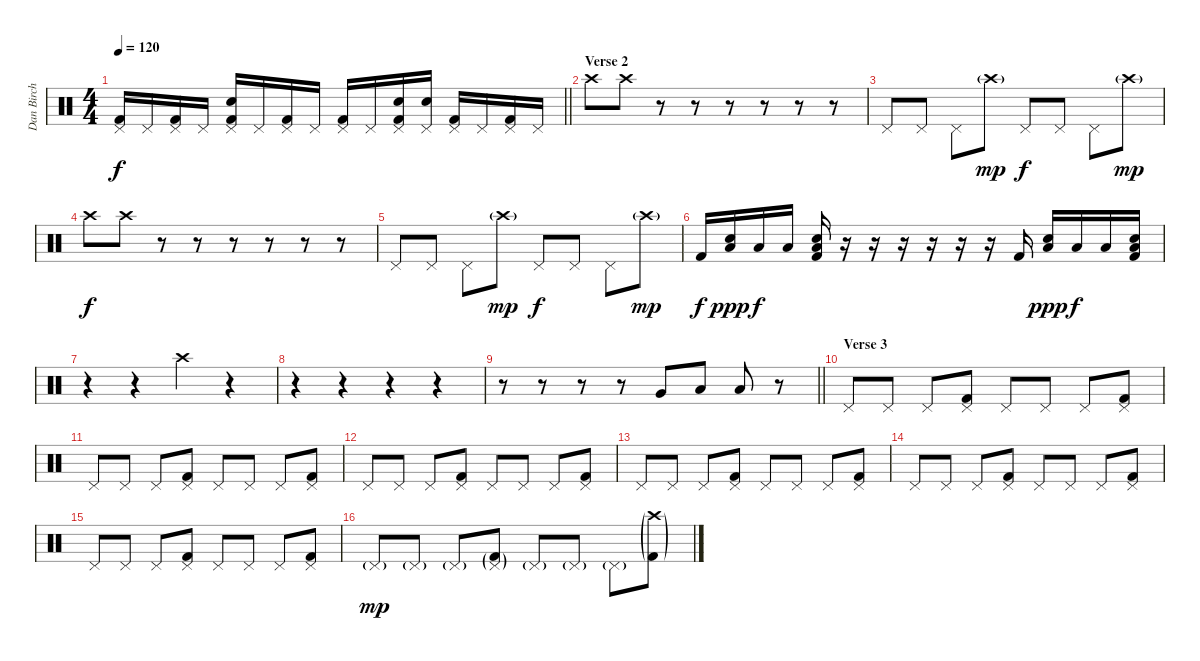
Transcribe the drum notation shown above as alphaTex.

\track ("Dan Birch" "Dan Birch") {instrument percussion}
\staff {score}
\articulation defaults
\ts (4 4)
\tempo 120
\clef neutral
\barLineRight lightlight
\ks c
("Pedal Hi-Hat (hit)" "Kick (hit) 2").16{dy f} "Pedal Hi-Hat (hit)".16 ("Pedal Hi-Hat (hit)" "Kick (hit) 2").16 "Pedal Hi-Hat (hit)".16 ("Pedal Hi-Hat (hit)" "Snare (hit) 2" "Kick (hit) 2").16 "Pedal Hi-Hat (hit)".16 ("Pedal Hi-Hat (hit)" "Kick (hit) 2").16 "Pedal Hi-Hat (hit)".16 ("Pedal Hi-Hat (hit)" "Kick (hit) 2").16 "Pedal Hi-Hat (hit)".16 ("Pedal Hi-Hat (hit)" "Snare (hit) 2" "Kick (hit) 2").16 ("Pedal Hi-Hat (hit)" "Snare (hit) 2").16 ("Pedal Hi-Hat (hit)" "Kick (hit) 2").16 "Pedal Hi-Hat (hit)".16 ("Pedal Hi-Hat (hit)" "Kick (hit) 2").16 "Pedal Hi-Hat (hit)".16 |
\section ("" "Verse 2")
"Crash high (hit)".8 "Crash high (hit)".8 r.8 r.8 r.8 r.8 r.8 r.8 |
"Pedal Hi-Hat (hit)".8 "Pedal Hi-Hat (hit)".8 "Pedal Hi-Hat (hit)".8 "Crash high (hit)"{g}.8{dy mp} "Pedal Hi-Hat (hit)".8{dy f} "Pedal Hi-Hat (hit)".8 "Pedal Hi-Hat (hit)".8 "Crash high (hit)"{g}.8{dy mp} |
"Crash high (hit)".8{dy f} "Crash high (hit)".8 r.8 r.8 r.8 r.8 r.8 r.8 |
"Pedal Hi-Hat (hit)".8 "Pedal Hi-Hat (hit)".8 "Pedal Hi-Hat (hit)".8 "Crash high (hit)"{g}.8{dy mp} "Pedal Hi-Hat (hit)".8{dy f} "Pedal Hi-Hat (hit)".8 "Pedal Hi-Hat (hit)".8 "Crash high (hit)"{g}.8{dy mp} |
"Kick (hit) 2".16{dy f} ("Snare (hit) 2" "Low Tom (hit)").16{dy ppp} "Low Tom (hit)".16{dy f} "Low Tom (hit)".16 ("Snare (hit) 2" "Low Tom (hit)" "Kick (hit) 2").16 r.16 r.16 r.16 r.16 r.16 r.16 "Kick (hit) 2".16 ("Snare (hit) 2" "Low Tom (hit)").16{dy ppp} "Low Tom (hit)".16{dy f} "Low Tom (hit)".16 ("Snare (hit) 2" "Low Tom (hit)" "Kick (hit) 2").16 |
r.4 r.4 "Crash high (hit)".4 r.4 |
r.4 r.4 r.4 r.4 |
\barLineRight lightlight
r.8 r.8 r.8 r.8 "Very Low Tom (hit)".8 "Low Tom (hit)".8 "Low Floor Tom (hit)".8 r.8 |
\section ("" "Verse 3")
"Pedal Hi-Hat (hit)".8 "Pedal Hi-Hat (hit)".8 "Pedal Hi-Hat (hit)".8 ("Pedal Hi-Hat (hit)" "Kick (hit) 2").8 "Pedal Hi-Hat (hit)".8 "Pedal Hi-Hat (hit)".8 "Pedal Hi-Hat (hit)".8 ("Pedal Hi-Hat (hit)" "Kick (hit) 2").8 |
"Pedal Hi-Hat (hit)".8 "Pedal Hi-Hat (hit)".8 "Pedal Hi-Hat (hit)".8 ("Pedal Hi-Hat (hit)" "Kick (hit) 2").8 "Pedal Hi-Hat (hit)".8 "Pedal Hi-Hat (hit)".8 "Pedal Hi-Hat (hit)".8 ("Pedal Hi-Hat (hit)" "Kick (hit) 2").8 |
"Pedal Hi-Hat (hit)".8 "Pedal Hi-Hat (hit)".8 "Pedal Hi-Hat (hit)".8 ("Pedal Hi-Hat (hit)" "Kick (hit) 2").8 "Pedal Hi-Hat (hit)".8 "Pedal Hi-Hat (hit)".8 "Pedal Hi-Hat (hit)".8 ("Pedal Hi-Hat (hit)" "Kick (hit) 2").8 |
"Pedal Hi-Hat (hit)".8 "Pedal Hi-Hat (hit)".8 "Pedal Hi-Hat (hit)".8 ("Pedal Hi-Hat (hit)" "Kick (hit) 2").8 "Pedal Hi-Hat (hit)".8 "Pedal Hi-Hat (hit)".8 "Pedal Hi-Hat (hit)".8 ("Pedal Hi-Hat (hit)" "Kick (hit) 2").8 |
"Pedal Hi-Hat (hit)".8 "Pedal Hi-Hat (hit)".8 "Pedal Hi-Hat (hit)".8 ("Pedal Hi-Hat (hit)" "Kick (hit) 2").8 "Pedal Hi-Hat (hit)".8 "Pedal Hi-Hat (hit)".8 "Pedal Hi-Hat (hit)".8 ("Pedal Hi-Hat (hit)" "Kick (hit) 2").8 |
"Pedal Hi-Hat (hit)".8 "Pedal Hi-Hat (hit)".8 "Pedal Hi-Hat (hit)".8 ("Pedal Hi-Hat (hit)" "Kick (hit) 2").8 "Pedal Hi-Hat (hit)".8 "Pedal Hi-Hat (hit)".8 "Pedal Hi-Hat (hit)".8 ("Pedal Hi-Hat (hit)" "Kick (hit) 2").8 |
"Pedal Hi-Hat (hit)"{g}.8{dy mp} "Pedal Hi-Hat (hit)"{g}.8 "Pedal Hi-Hat (hit)"{g}.8 ("Pedal Hi-Hat (hit)"{g} "Kick (hit) 2"{g}).8 "Pedal Hi-Hat (hit)"{g}.8 "Pedal Hi-Hat (hit)"{g}.8 "Pedal Hi-Hat (hit)"{g}.8 ("Crash high (hit)"{g} "Kick (hit) 2"{g}).8
